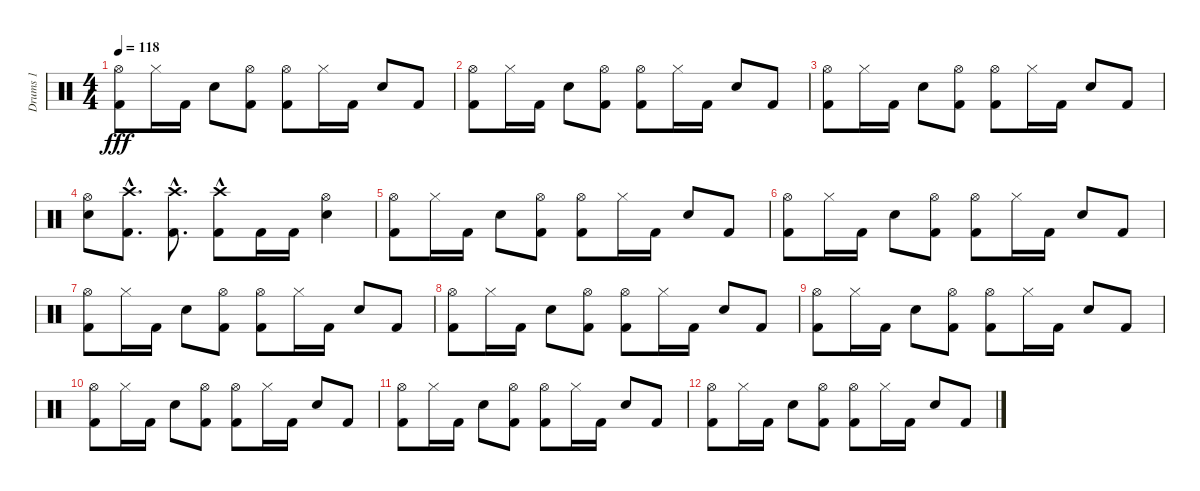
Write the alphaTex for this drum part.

\track ("Drums 1" "Drums 1") {instrument percussion}
\staff {score}
\articulation defaults
\ts (4 4)
\tempo 118
\clef neutral
\ks c
("Hi-Hat (open)" "Kick (hit) 2").8{dy fff} "Hi-Hat (closed)".16 "Kick (hit) 2".16 "Electric Snare (hit)".8 ("Hi-Hat (open)" "Kick (hit) 2").8 ("Hi-Hat (open)" "Kick (hit) 2").8 "Hi-Hat (closed)".16 "Kick (hit) 2".16 "Electric Snare (hit)".8 "Kick (hit) 2".8 |
("Hi-Hat (open)" "Kick (hit) 2").8 "Hi-Hat (closed)".16 "Kick (hit) 2".16 "Electric Snare (hit)".8 ("Hi-Hat (open)" "Kick (hit) 2").8 ("Hi-Hat (open)" "Kick (hit) 2").8 "Hi-Hat (closed)".16 "Kick (hit) 2".16 "Electric Snare (hit)".8 "Kick (hit) 2".8 |
("Hi-Hat (open)" "Kick (hit) 2").8 "Hi-Hat (closed)".16 "Kick (hit) 2".16 "Electric Snare (hit)".8 ("Hi-Hat (open)" "Kick (hit) 2").8 ("Hi-Hat (open)" "Kick (hit) 2").8 "Hi-Hat (closed)".16 "Kick (hit) 2".16 "Electric Snare (hit)".8 "Kick (hit) 2".8 |
("Hi-Hat (open)" "Electric Snare (hit)").8 ("Crash high (hit)" "Kick (hit) 2"{hac}).8{d} ("Crash high (hit)"{hac} "Kick (hit) 2"{hac}).8{d} ("Crash high (hit)"{hac} "Kick (hit) 2").8 "Kick (hit) 2".16 "Kick (hit) 2".16 ("Hi-Hat (open)" "Electric Snare (hit)").4 |
("Hi-Hat (open)" "Kick (hit) 2").8 "Hi-Hat (closed)".16 "Kick (hit) 2".16 "Electric Snare (hit)".8 ("Hi-Hat (open)" "Kick (hit) 2").8 ("Hi-Hat (open)" "Kick (hit) 2").8 "Hi-Hat (closed)".16 "Kick (hit) 2".16 "Electric Snare (hit)".8 "Kick (hit) 2".8 |
("Hi-Hat (open)" "Kick (hit) 2").8 "Hi-Hat (closed)".16 "Kick (hit) 2".16 "Electric Snare (hit)".8 ("Hi-Hat (open)" "Kick (hit) 2").8 ("Hi-Hat (open)" "Kick (hit) 2").8 "Hi-Hat (closed)".16 "Kick (hit) 2".16 "Electric Snare (hit)".8 "Kick (hit) 2".8 |
("Hi-Hat (open)" "Kick (hit) 2").8 "Hi-Hat (closed)".16 "Kick (hit) 2".16 "Electric Snare (hit)".8 ("Hi-Hat (open)" "Kick (hit) 2").8 ("Hi-Hat (open)" "Kick (hit) 2").8 "Hi-Hat (closed)".16 "Kick (hit) 2".16 "Electric Snare (hit)".8 "Kick (hit) 2".8 |
("Hi-Hat (open)" "Kick (hit) 2").8 "Hi-Hat (closed)".16 "Kick (hit) 2".16 "Electric Snare (hit)".8 ("Hi-Hat (open)" "Kick (hit) 2").8 ("Hi-Hat (open)" "Kick (hit) 2").8 "Hi-Hat (closed)".16 "Kick (hit) 2".16 "Electric Snare (hit)".8 "Kick (hit) 2".8 |
("Hi-Hat (open)" "Kick (hit) 2").8 "Hi-Hat (closed)".16 "Kick (hit) 2".16 "Electric Snare (hit)".8 ("Hi-Hat (open)" "Kick (hit) 2").8 ("Hi-Hat (open)" "Kick (hit) 2").8 "Hi-Hat (closed)".16 "Kick (hit) 2".16 "Electric Snare (hit)".8 "Kick (hit) 2".8 |
("Hi-Hat (open)" "Kick (hit) 2").8 "Hi-Hat (closed)".16 "Kick (hit) 2".16 "Electric Snare (hit)".8 ("Hi-Hat (open)" "Kick (hit) 2").8 ("Hi-Hat (open)" "Kick (hit) 2").8 "Hi-Hat (closed)".16 "Kick (hit) 2".16 "Electric Snare (hit)".8 "Kick (hit) 2".8 |
("Hi-Hat (open)" "Kick (hit) 2").8 "Hi-Hat (closed)".16 "Kick (hit) 2".16 "Electric Snare (hit)".8 ("Hi-Hat (open)" "Kick (hit) 2").8 ("Hi-Hat (open)" "Kick (hit) 2").8 "Hi-Hat (closed)".16 "Kick (hit) 2".16 "Electric Snare (hit)".8 "Kick (hit) 2".8 |
("Hi-Hat (open)" "Kick (hit) 2").8 "Hi-Hat (closed)".16 "Kick (hit) 2".16 "Electric Snare (hit)".8 ("Hi-Hat (open)" "Kick (hit) 2").8 ("Hi-Hat (open)" "Kick (hit) 2").8 "Hi-Hat (closed)".16 "Kick (hit) 2".16 "Electric Snare (hit)".8 "Kick (hit) 2".8
